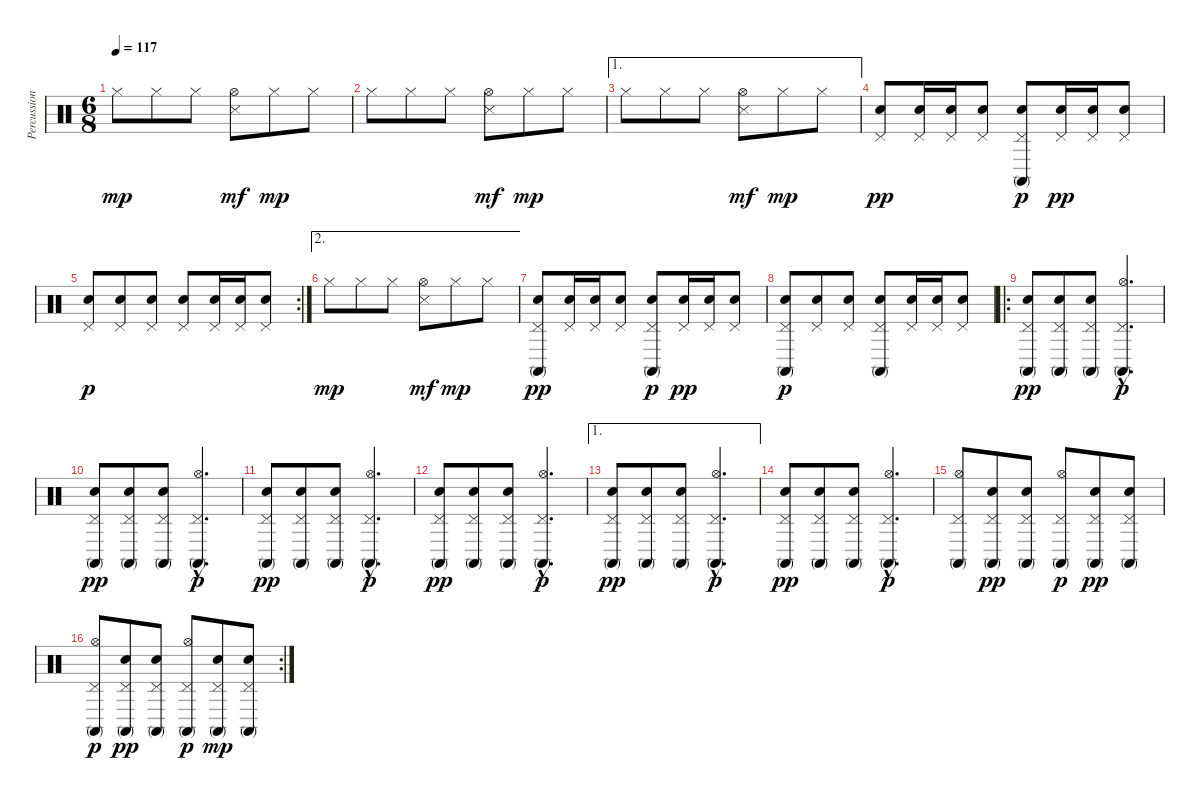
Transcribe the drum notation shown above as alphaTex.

\track ("Percussions" "Percussion") {instrument percussion}
\staff {score}
\articulation defaults
\ts (6 8)
\tempo 117
\clef neutral
\ks c "Hi-Hat (closed)".8{dy mp} "Hi-Hat (closed)".8 "Hi-Hat (closed)".8
("Hi-Hat (open)" "Snare (side stick) 3").8{dy mf} "Hi-Hat (closed)".8{dy mp} "Hi-Hat (closed)".8 |
"Hi-Hat (closed)".8 "Hi-Hat (closed)".8 "Hi-Hat (closed)".8 ("Hi-Hat (open)" "Snare (side stick) 3").8{dy mf} "Hi-Hat (closed)".8{dy mp} "Hi-Hat (closed)".8 |
\ae 1 "Hi-Hat (closed)".8 "Hi-Hat (closed)".8 "Hi-Hat (closed)".8
("Hi-Hat (open)" "Snare (side stick) 3").8{dy mf} "Hi-Hat (closed)".8{dy mp} "Hi-Hat (closed)".8 |
("Pedal Hi-Hat (hit)" "Snare (hit) 2").8{dy pp} ("Pedal Hi-Hat (hit)" "Snare (hit) 2").16 ("Pedal Hi-Hat (hit)" "Snare (hit) 2").16 ("Pedal Hi-Hat (hit)" "Snare (hit) 2").8 ("Pedal Hi-Hat (hit)" "Snare (hit) 2" "Conga high (mute)").8{dy p} ("Pedal Hi-Hat (hit)" "Snare (hit) 2").16{dy pp} ("Pedal Hi-Hat (hit)" "Snare (hit) 2").16 ("Pedal Hi-Hat (hit)" "Snare (hit) 2").8 |
\rc 2
("Pedal Hi-Hat (hit)" "Snare (hit) 2").8{dy p} ("Pedal Hi-Hat (hit)" "Snare (hit) 2").8 ("Pedal Hi-Hat (hit)" "Snare (hit) 2").8 ("Pedal Hi-Hat (hit)" "Snare (hit) 2").8 ("Pedal Hi-Hat (hit)" "Snare (hit) 2").16 ("Pedal Hi-Hat (hit)" "Snare (hit) 2").16 ("Pedal Hi-Hat (hit)" "Snare (hit) 2").8 |
\ae 2 "Hi-Hat (closed)".8{dy mp} "Hi-Hat (closed)".8 "Hi-Hat (closed)".8
("Hi-Hat (open)" "Snare (side stick) 3").8{dy mf} "Hi-Hat (closed)".8{dy mp} "Hi-Hat (closed)".8 |
("Pedal Hi-Hat (hit)" "Snare (hit) 2" "Conga high (mute)").8{dy pp} ("Pedal Hi-Hat (hit)" "Snare (hit) 2").16 ("Pedal Hi-Hat (hit)" "Snare (hit) 2").16 ("Pedal Hi-Hat (hit)" "Snare (hit) 2").8 ("Pedal Hi-Hat (hit)" "Snare (hit) 2" "Conga high (mute)").8{dy p} ("Pedal Hi-Hat (hit)" "Snare (hit) 2").16{dy pp} ("Pedal Hi-Hat (hit)" "Snare (hit) 2").16 ("Pedal Hi-Hat (hit)" "Snare (hit) 2").8 |
("Pedal Hi-Hat (hit)" "Snare (hit) 2" "Conga high (mute)").8{dy p} ("Pedal Hi-Hat (hit)" "Snare (hit) 2").8 ("Pedal Hi-Hat (hit)" "Snare (hit) 2").8 ("Pedal Hi-Hat (hit)" "Snare (hit) 2" "Conga high (mute)").8 ("Pedal Hi-Hat (hit)" "Snare (hit) 2").16 ("Pedal Hi-Hat (hit)" "Snare (hit) 2").16 ("Pedal Hi-Hat (hit)" "Snare (hit) 2").8 |
\ro
("Pedal Hi-Hat (hit)" "Snare (hit) 2" "Conga high (mute)").8{dy pp} ("Pedal Hi-Hat (hit)" "Snare (hit) 2" "Conga high (mute)").8 ("Pedal Hi-Hat (hit)" "Snare (hit) 2" "Conga high (mute)").8 ("Pedal Hi-Hat (hit)"{hac} "Hi-Hat (open)"{hac} "Conga high (mute)"{hac}).4{d dy p} |
("Pedal Hi-Hat (hit)" "Snare (hit) 2" "Conga high (mute)").8{dy pp} ("Pedal Hi-Hat (hit)" "Snare (hit) 2" "Conga high (mute)").8 ("Pedal Hi-Hat (hit)" "Snare (hit) 2" "Conga high (mute)").8 ("Pedal Hi-Hat (hit)"{hac} "Hi-Hat (open)"{hac} "Conga high (mute)"{hac}).4{d dy p} |
("Pedal Hi-Hat (hit)" "Snare (hit) 2" "Conga high (mute)").8{dy pp} ("Pedal Hi-Hat (hit)" "Snare (hit) 2" "Conga high (mute)").8 ("Pedal Hi-Hat (hit)" "Snare (hit) 2" "Conga high (mute)").8 ("Pedal Hi-Hat (hit)"{hac} "Hi-Hat (open)"{hac} "Conga high (mute)"{hac}).4{d dy p} |
("Pedal Hi-Hat (hit)" "Snare (hit) 2" "Conga high (mute)").8{dy pp} ("Pedal Hi-Hat (hit)" "Snare (hit) 2" "Conga high (mute)").8 ("Pedal Hi-Hat (hit)" "Snare (hit) 2" "Conga high (mute)").8 ("Pedal Hi-Hat (hit)"{hac} "Hi-Hat (open)"{hac} "Conga high (mute)"{hac}).4{d dy p} |
\ae 1
("Pedal Hi-Hat (hit)" "Snare (hit) 2" "Conga high (mute)").8{dy pp} ("Pedal Hi-Hat (hit)" "Snare (hit) 2" "Conga high (mute)").8 ("Pedal Hi-Hat (hit)" "Snare (hit) 2" "Conga high (mute)").8 ("Pedal Hi-Hat (hit)"{hac} "Hi-Hat (open)"{hac} "Conga high (mute)"{hac}).4{d dy p} |
("Pedal Hi-Hat (hit)" "Snare (hit) 2" "Conga high (mute)").8{dy pp} ("Pedal Hi-Hat (hit)" "Snare (hit) 2" "Conga high (mute)").8 ("Pedal Hi-Hat (hit)" "Snare (hit) 2" "Conga high (mute)").8 ("Pedal Hi-Hat (hit)"{hac} "Hi-Hat (open)"{hac} "Conga high (mute)"{hac}).4{d dy p} |
("Pedal Hi-Hat (hit)" "Hi-Hat (open)" "Conga high (mute)").8 ("Pedal Hi-Hat (hit)" "Snare (hit) 2" "Conga high (mute)").8{dy pp} ("Pedal Hi-Hat (hit)" "Snare (hit) 2" "Conga high (mute)").8 ("Pedal Hi-Hat (hit)" "Hi-Hat (open)" "Conga high (mute)").8{dy p} ("Pedal Hi-Hat (hit)" "Snare (hit) 2" "Conga high (mute)").8{dy pp} ("Pedal Hi-Hat (hit)" "Snare (hit) 2" "Conga high (mute)").8 |
\rc 2
("Pedal Hi-Hat (hit)" "Hi-Hat (open)" "Conga high (mute)").8{dy p} ("Pedal Hi-Hat (hit)" "Snare (hit) 2" "Conga high (mute)").8{dy pp} ("Pedal Hi-Hat (hit)" "Snare (hit) 2" "Conga high (mute)").8 ("Pedal Hi-Hat (hit)" "Hi-Hat (open)" "Conga high (mute)").8{dy p} ("Pedal Hi-Hat (hit)" "Snare (hit) 2" "Conga high (mute)").8{dy mp} ("Pedal Hi-Hat (hit)" "Snare (hit) 2" "Conga high (mute)").8
